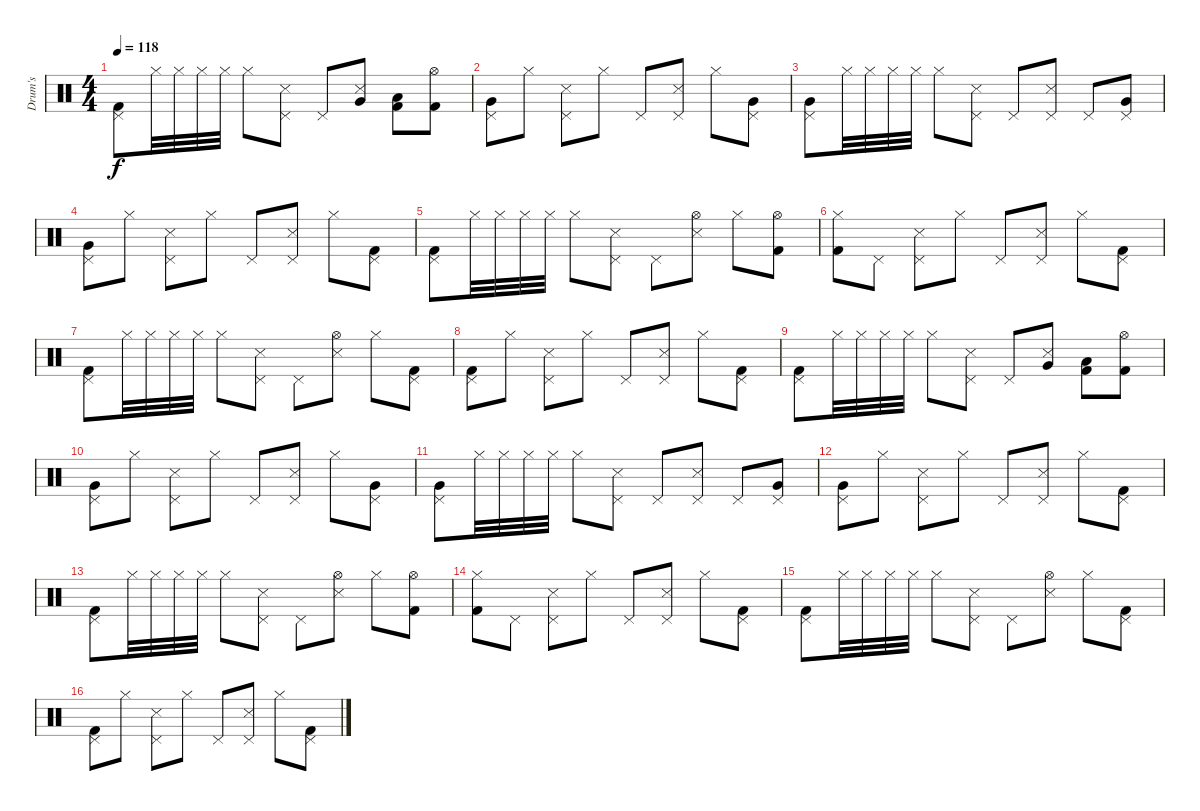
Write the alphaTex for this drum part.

\track ("Drum's" "Drum's") {instrument percussion}
\staff {score}
\articulation defaults
\ts (4 4)
\tempo 118
\clef neutral
\ks c
("Pedal Hi-Hat (hit)" "Kick (hit) 2").8{dy f} "Hi-Hat (closed)".32 "Hi-Hat (closed)".32 "Hi-Hat (closed)".32 "Hi-Hat (closed)".32 "Hi-Hat (closed)".8 ("Pedal Hi-Hat (hit)" "Snare (side stick) 3").8 "Pedal Hi-Hat (hit)".8 ("Snare (side stick) 3" "Very Low Tom (hit)").8 ("Kick (hit) 2" "Low Tom (hit)").8 ("Hi-Hat (open)" "Kick (hit) 2").8 |
("Pedal Hi-Hat (hit)" "Very Low Tom (hit)").8 "Hi-Hat (closed)".8 ("Pedal Hi-Hat (hit)" "Snare (side stick) 3").8 "Hi-Hat (closed)".8 "Pedal Hi-Hat (hit)".8 ("Pedal Hi-Hat (hit)" "Snare (side stick) 3").8 "Hi-Hat (closed)".8 ("Pedal Hi-Hat (hit)" "Very Low Tom (hit)").8 |
("Pedal Hi-Hat (hit)" "Very Low Tom (hit)").8 "Hi-Hat (closed)".32 "Hi-Hat (closed)".32 "Hi-Hat (closed)".32 "Hi-Hat (closed)".32 "Hi-Hat (closed)".8 ("Pedal Hi-Hat (hit)" "Snare (side stick) 3").8 "Pedal Hi-Hat (hit)".8 ("Pedal Hi-Hat (hit)" "Snare (side stick) 3").8 "Pedal Hi-Hat (hit)".8 ("Pedal Hi-Hat (hit)" "Very Low Tom (hit)").8 |
("Pedal Hi-Hat (hit)" "Very Low Tom (hit)").8 "Hi-Hat (closed)".8 ("Pedal Hi-Hat (hit)" "Snare (side stick) 3").8 "Hi-Hat (closed)".8 "Pedal Hi-Hat (hit)".8 ("Pedal Hi-Hat (hit)" "Snare (side stick) 3").8 "Hi-Hat (closed)".8 ("Pedal Hi-Hat (hit)" "Kick (hit) 2").8 |
("Pedal Hi-Hat (hit)" "Kick (hit) 2").8 "Hi-Hat (closed)".32 "Hi-Hat (closed)".32 "Hi-Hat (closed)".32 "Hi-Hat (closed)".32 "Hi-Hat (closed)".8 ("Pedal Hi-Hat (hit)" "Snare (side stick) 3").8 "Pedal Hi-Hat (hit)".8 ("Hi-Hat (open)" "Snare (side stick) 3").8 "Hi-Hat (closed)".8 ("Hi-Hat (open)" "Kick (hit) 2").8 |
("Hi-Hat (closed)" "Kick (hit) 2").8 "Pedal Hi-Hat (hit)".8 ("Pedal Hi-Hat (hit)" "Snare (side stick) 3").8 "Hi-Hat (closed)".8 "Pedal Hi-Hat (hit)".8 ("Pedal Hi-Hat (hit)" "Snare (side stick) 3").8 "Hi-Hat (closed)".8 ("Pedal Hi-Hat (hit)" "Kick (hit) 2").8 |
("Pedal Hi-Hat (hit)" "Kick (hit) 2").8 "Hi-Hat (closed)".32 "Hi-Hat (closed)".32 "Hi-Hat (closed)".32 "Hi-Hat (closed)".32 "Hi-Hat (closed)".8 ("Pedal Hi-Hat (hit)" "Snare (side stick) 3").8 "Pedal Hi-Hat (hit)".8 ("Hi-Hat (open)" "Snare (side stick) 3").8 "Hi-Hat (closed)".8 ("Pedal Hi-Hat (hit)" "Kick (hit) 2").8 |
("Pedal Hi-Hat (hit)" "Kick (hit) 2").8 "Hi-Hat (closed)".8 ("Pedal Hi-Hat (hit)" "Snare (side stick) 3").8 "Hi-Hat (closed)".8 "Pedal Hi-Hat (hit)".8 ("Pedal Hi-Hat (hit)" "Snare (side stick) 3").8 "Hi-Hat (closed)".8 ("Pedal Hi-Hat (hit)" "Kick (hit) 2").8 |
("Pedal Hi-Hat (hit)" "Kick (hit) 2").8 "Hi-Hat (closed)".32 "Hi-Hat (closed)".32 "Hi-Hat (closed)".32 "Hi-Hat (closed)".32 "Hi-Hat (closed)".8 ("Pedal Hi-Hat (hit)" "Snare (side stick) 3").8 "Pedal Hi-Hat (hit)".8 ("Snare (side stick) 3" "Very Low Tom (hit)").8 ("Kick (hit) 2" "Low Tom (hit)").8 ("Hi-Hat (open)" "Kick (hit) 2").8 |
("Pedal Hi-Hat (hit)" "Very Low Tom (hit)").8 "Hi-Hat (closed)".8 ("Pedal Hi-Hat (hit)" "Snare (side stick) 3").8 "Hi-Hat (closed)".8 "Pedal Hi-Hat (hit)".8 ("Pedal Hi-Hat (hit)" "Snare (side stick) 3").8 "Hi-Hat (closed)".8 ("Pedal Hi-Hat (hit)" "Very Low Tom (hit)").8 |
("Pedal Hi-Hat (hit)" "Very Low Tom (hit)").8 "Hi-Hat (closed)".32 "Hi-Hat (closed)".32 "Hi-Hat (closed)".32 "Hi-Hat (closed)".32 "Hi-Hat (closed)".8 ("Pedal Hi-Hat (hit)" "Snare (side stick) 3").8 "Pedal Hi-Hat (hit)".8 ("Pedal Hi-Hat (hit)" "Snare (side stick) 3").8 "Pedal Hi-Hat (hit)".8 ("Pedal Hi-Hat (hit)" "Very Low Tom (hit)").8 |
("Pedal Hi-Hat (hit)" "Very Low Tom (hit)").8 "Hi-Hat (closed)".8 ("Pedal Hi-Hat (hit)" "Snare (side stick) 3").8 "Hi-Hat (closed)".8 "Pedal Hi-Hat (hit)".8 ("Pedal Hi-Hat (hit)" "Snare (side stick) 3").8 "Hi-Hat (closed)".8 ("Pedal Hi-Hat (hit)" "Kick (hit) 2").8 |
("Pedal Hi-Hat (hit)" "Kick (hit) 2").8 "Hi-Hat (closed)".32 "Hi-Hat (closed)".32 "Hi-Hat (closed)".32 "Hi-Hat (closed)".32 "Hi-Hat (closed)".8 ("Pedal Hi-Hat (hit)" "Snare (side stick) 3").8 "Pedal Hi-Hat (hit)".8 ("Hi-Hat (open)" "Snare (side stick) 3").8 "Hi-Hat (closed)".8 ("Hi-Hat (open)" "Kick (hit) 2").8 |
("Hi-Hat (closed)" "Kick (hit) 2").8 "Pedal Hi-Hat (hit)".8 ("Pedal Hi-Hat (hit)" "Snare (side stick) 3").8 "Hi-Hat (closed)".8 "Pedal Hi-Hat (hit)".8 ("Pedal Hi-Hat (hit)" "Snare (side stick) 3").8 "Hi-Hat (closed)".8 ("Pedal Hi-Hat (hit)" "Kick (hit) 2").8 |
("Pedal Hi-Hat (hit)" "Kick (hit) 2").8 "Hi-Hat (closed)".32 "Hi-Hat (closed)".32 "Hi-Hat (closed)".32 "Hi-Hat (closed)".32 "Hi-Hat (closed)".8 ("Pedal Hi-Hat (hit)" "Snare (side stick) 3").8 "Pedal Hi-Hat (hit)".8 ("Hi-Hat (open)" "Snare (side stick) 3").8 "Hi-Hat (closed)".8 ("Pedal Hi-Hat (hit)" "Kick (hit) 2").8 |
("Pedal Hi-Hat (hit)" "Kick (hit) 2").8 "Hi-Hat (closed)".8 ("Pedal Hi-Hat (hit)" "Snare (side stick) 3").8 "Hi-Hat (closed)".8 "Pedal Hi-Hat (hit)".8 ("Pedal Hi-Hat (hit)" "Snare (side stick) 3").8 "Hi-Hat (closed)".8 ("Pedal Hi-Hat (hit)" "Kick (hit) 2").8
